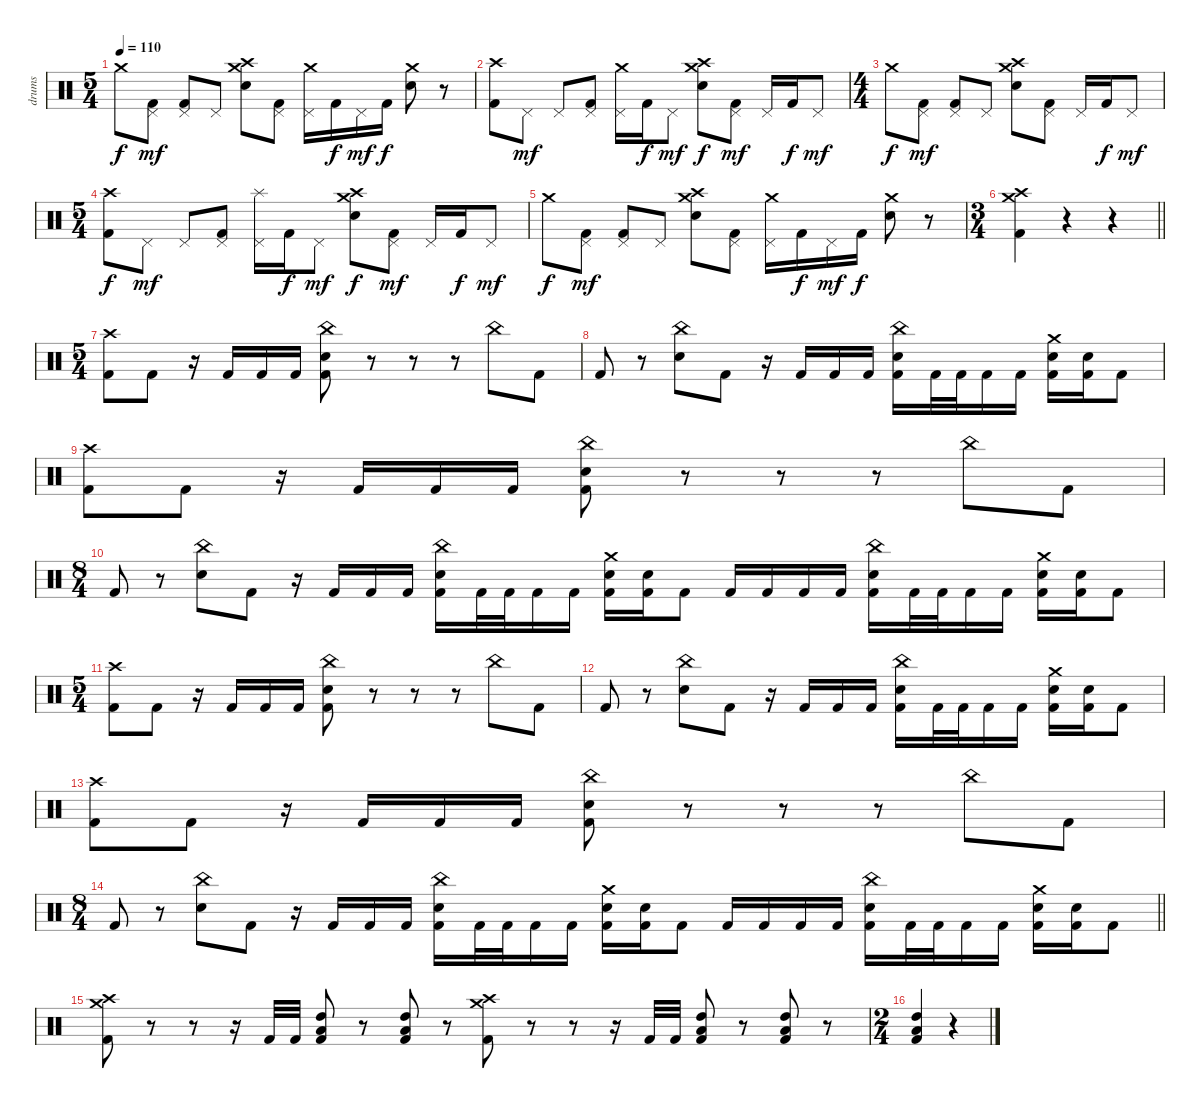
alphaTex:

\track ("drums" "drums") {instrument percussion}
\staff {score}
\articulation defaults
\ts (5 4)
\tempo 110
\clef neutral
\ks c "Crash medium (hit)".8{dy f}
("Pedal Hi-Hat (hit)" "Kick (hit) 2").8{dy mf} ("Pedal Hi-Hat (hit)" "Kick (hit) 2").8 "Pedal Hi-Hat (hit)".8 ("Crash high (hit)" "Crash medium (hit)" "Electric Snare (hit)").8 ("Pedal Hi-Hat (hit)" "Kick (hit) 2").8 ("Crash medium (hit)" "Pedal Hi-Hat (hit)").16 "Kick (hit) 2".16{dy f} "Pedal Hi-Hat (hit)".16{dy mf} "Kick (hit) 2".16{dy f} ("Crash medium (hit)" "Electric Snare (hit)").8 r.8 |
("Crash high (hit)" "Kick (hit) 2").8 "Pedal Hi-Hat (hit)".8{dy mf} "Pedal Hi-Hat (hit)".8 ("Pedal Hi-Hat (hit)" "Kick (hit) 2").8 ("Crash medium (hit)" "Pedal Hi-Hat (hit)").16 "Kick (hit) 2".16{dy f} "Pedal Hi-Hat (hit)".8{dy mf} ("Crash medium (hit)" "Crash high (hit)" "Electric Snare (hit)").8{dy f} ("Pedal Hi-Hat (hit)" "Kick (hit) 2").8{dy mf} "Pedal Hi-Hat (hit)".16 "Kick (hit) 2".16{dy f} "Pedal Hi-Hat (hit)".8{dy mf} |
\ts (4 4)
"Crash medium (hit)".8{dy f} ("Pedal Hi-Hat (hit)" "Kick (hit) 2").8{dy mf} ("Pedal Hi-Hat (hit)" "Kick (hit) 2").8 "Pedal Hi-Hat (hit)".8 ("Crash high (hit)" "Crash medium (hit)" "Electric Snare (hit)").8 ("Pedal Hi-Hat (hit)" "Kick (hit) 2").8 "Pedal Hi-Hat (hit)".16 "Kick (hit) 2".16{dy f} "Pedal Hi-Hat (hit)".8{dy mf} |
\ts (5 4)
("Crash high (hit)" "Kick (hit) 2").8{dy f} "Pedal Hi-Hat (hit)".8{dy mf} "Pedal Hi-Hat (hit)".8 ("Pedal Hi-Hat (hit)" "Kick (hit) 2").8 ("Splash (hit)" "Pedal Hi-Hat (hit)").16 "Kick (hit) 2".16{dy f} "Pedal Hi-Hat (hit)".8{dy mf} ("Crash medium (hit)" "Crash high (hit)" "Electric Snare (hit)").8{dy f} ("Pedal Hi-Hat (hit)" "Kick (hit) 2").8{dy mf} "Pedal Hi-Hat (hit)".16 "Kick (hit) 2".16{dy f} "Pedal Hi-Hat (hit)".8{dy mf} |
"Crash medium (hit)".8{dy f} ("Pedal Hi-Hat (hit)" "Kick (hit) 2").8{dy mf} ("Pedal Hi-Hat (hit)" "Kick (hit) 2").8 "Pedal Hi-Hat (hit)".8 ("Crash high (hit)" "Crash medium (hit)" "Electric Snare (hit)").8 ("Pedal Hi-Hat (hit)" "Kick (hit) 2").8 ("Crash medium (hit)" "Pedal Hi-Hat (hit)").16 "Kick (hit) 2".16{dy f} "Pedal Hi-Hat (hit)".16{dy mf} "Kick (hit) 2".16{dy f} ("Crash medium (hit)" "Electric Snare (hit)").8 r.8 |
\ts (3 4)
\barLineRight lightlight
("Crash high (hit)" "Crash medium (hit)" "Kick (hit) 2").4 r.4 r.4 |
\ts (5 4)
\section ("" "")
("Crash high (hit)" "Kick (hit) 2").8 "Kick (hit) 2".8 r.16 "Kick (hit) 2".16 "Kick (hit) 2".16 "Kick (hit) 2".16 ("China (hit)" "Electric Snare (hit)" "Kick (hit) 2").8 r.8 r.8 r.8 "China (hit)".8 "Kick (hit) 2".8 |
"Kick (hit) 2".8 r.8 ("China (hit)" "Electric Snare (hit)").8 "Kick (hit) 2".8 r.16 "Kick (hit) 2".16 "Kick (hit) 2".16 "Kick (hit) 2".16 ("China (hit)" "Electric Snare (hit)" "Kick (hit) 2").16 "Kick (hit) 2".32 "Kick (hit) 2".32 "Kick (hit) 2".16 "Kick (hit) 2".16 ("Crash medium (hit)" "Electric Snare (hit)" "Kick (hit) 2").16 ("Electric Snare (hit)" "Kick (hit) 2").16 "Kick (hit) 2".8 |
("Crash high (hit)" "Kick (hit) 2").8 "Kick (hit) 2".8 r.16 "Kick (hit) 2".16 "Kick (hit) 2".16 "Kick (hit) 2".16 ("China (hit)" "Electric Snare (hit)" "Kick (hit) 2").8 r.8 r.8 r.8 "China (hit)".8 "Kick (hit) 2".8 |
\ts (8 4)
"Kick (hit) 2".8 r.8 ("China (hit)" "Electric Snare (hit)").8 "Kick (hit) 2".8 r.16 "Kick (hit) 2".16 "Kick (hit) 2".16 "Kick (hit) 2".16 ("China (hit)" "Electric Snare (hit)" "Kick (hit) 2").16 "Kick (hit) 2".32 "Kick (hit) 2".32 "Kick (hit) 2".16 "Kick (hit) 2".16 ("Crash medium (hit)" "Electric Snare (hit)" "Kick (hit) 2").16 ("Electric Snare (hit)" "Kick (hit) 2").16 "Kick (hit) 2".8 "Kick (hit) 2".16 "Kick (hit) 2".16 "Kick (hit) 2".16 "Kick (hit) 2".16 ("China (hit)" "Electric Snare (hit)" "Kick (hit) 2").16 "Kick (hit) 2".32 "Kick (hit) 2".32 "Kick (hit) 2".16 "Kick (hit) 2".16 ("Crash medium (hit)" "Electric Snare (hit)" "Kick (hit) 2").16 ("Electric Snare (hit)" "Kick (hit) 2").16 "Kick (hit) 2".8 |
\ts (5 4)
("Crash high (hit)" "Kick (hit) 2").8 "Kick (hit) 2".8 r.16 "Kick (hit) 2".16 "Kick (hit) 2".16 "Kick (hit) 2".16 ("China (hit)" "Electric Snare (hit)" "Kick (hit) 2").8 r.8 r.8 r.8 "China (hit)".8 "Kick (hit) 2".8 |
"Kick (hit) 2".8 r.8 ("China (hit)" "Electric Snare (hit)").8 "Kick (hit) 2".8 r.16 "Kick (hit) 2".16 "Kick (hit) 2".16 "Kick (hit) 2".16 ("China (hit)" "Electric Snare (hit)" "Kick (hit) 2").16 "Kick (hit) 2".32 "Kick (hit) 2".32 "Kick (hit) 2".16 "Kick (hit) 2".16 ("Crash medium (hit)" "Electric Snare (hit)" "Kick (hit) 2").16 ("Electric Snare (hit)" "Kick (hit) 2").16 "Kick (hit) 2".8 |
("Crash high (hit)" "Kick (hit) 2").8 "Kick (hit) 2".8 r.16 "Kick (hit) 2".16 "Kick (hit) 2".16 "Kick (hit) 2".16 ("China (hit)" "Electric Snare (hit)" "Kick (hit) 2").8 r.8 r.8 r.8 "China (hit)".8 "Kick (hit) 2".8 |
\ts (8 4)
\barLineRight lightlight "Kick (hit) 2".8
r.8 ("China (hit)" "Electric Snare (hit)").8 "Kick (hit) 2".8 r.16 "Kick (hit) 2".16 "Kick (hit) 2".16 "Kick (hit) 2".16 ("China (hit)" "Electric Snare (hit)" "Kick (hit) 2").16 "Kick (hit) 2".32 "Kick (hit) 2".32 "Kick (hit) 2".16 "Kick (hit) 2".16 ("Crash medium (hit)" "Electric Snare (hit)" "Kick (hit) 2").16 ("Electric Snare (hit)" "Kick (hit) 2").16 "Kick (hit) 2".8 "Kick (hit) 2".16 "Kick (hit) 2".16 "Kick (hit) 2".16 "Kick (hit) 2".16 ("China (hit)" "Electric Snare (hit)" "Kick (hit) 2").16 "Kick (hit) 2".32 "Kick (hit) 2".32 "Kick (hit) 2".16 "Kick (hit) 2".16 ("Crash medium (hit)" "Electric Snare (hit)" "Kick (hit) 2").16 ("Electric Snare (hit)" "Kick (hit) 2").16 "Kick (hit) 2".8 |
\section ("" "")
("Crash high (hit)" "Crash medium (hit)" "Kick (hit) 2").8 r.8 r.8 r.16 "Kick (hit) 2".32 "Kick (hit) 2".32 ("High Tom (hit)" "Low Floor Tom (hit)" "Kick (hit) 2").8 r.8 ("High Tom (hit)" "Low Floor Tom (hit)" "Kick (hit) 2").8 r.8 ("Crash high (hit)" "Crash medium (hit)" "Kick (hit) 2").8 r.8 r.8 r.16 "Kick (hit) 2".32 "Kick (hit) 2".32 ("High Tom (hit)" "Low Floor Tom (hit)" "Kick (hit) 2").8 r.8 ("High Tom (hit)" "Low Floor Tom (hit)" "Kick (hit) 2").8 r.8 |
\ts (2 4)
("High Tom (hit)" "Low Floor Tom (hit)" "Kick (hit) 2").4 r.4
